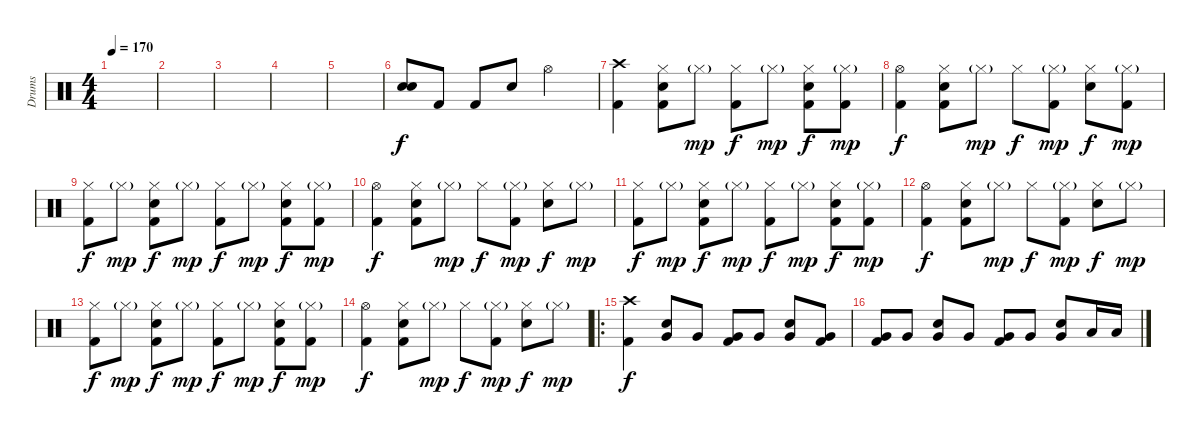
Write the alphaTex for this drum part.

\track ("Drums" "Drums") {instrument percussion}
\staff {score}
\articulation defaults
\ts (4 4)
\tempo 170
\clef neutral
\ks c
|
|
|
|
|
("Snare (hit) 2" "Snare (hit) 2").8 "Kick (hit) 2".8 "Kick (hit) 2".8 "Snare (hit) 2".8 "Hi-Hat (open)".2 |
("Crash high (hit)" "Kick (hit) 2").4 ("Hi-Hat (closed)" "Snare (hit) 2" "Kick (hit) 2").8 "Hi-Hat (closed)"{g}.8{dy mp} ("Hi-Hat (closed)" "Kick (hit) 2").8{dy f} "Hi-Hat (closed)"{g}.8{dy mp} ("Hi-Hat (closed)" "Snare (hit) 2" "Kick (hit) 2").8{dy f} ("Hi-Hat (closed)"{g} "Kick (hit) 2").8{dy mp} |
("Hi-Hat (open)" "Kick (hit) 2").4{dy f} ("Hi-Hat (closed)" "Snare (hit) 2" "Kick (hit) 2").8 "Hi-Hat (closed)"{g}.8{dy mp} "Hi-Hat (closed)".8{dy f} ("Hi-Hat (closed)"{g} "Kick (hit) 2").8{dy mp} ("Hi-Hat (closed)" "Snare (hit) 2").8{dy f} ("Hi-Hat (closed)"{g} "Kick (hit) 2").8{dy mp} |
("Hi-Hat (closed)" "Kick (hit) 2").8{dy f} "Hi-Hat (closed)"{g}.8{dy mp} ("Hi-Hat (closed)" "Snare (hit) 2" "Kick (hit) 2").8{dy f} "Hi-Hat (closed)"{g}.8{dy mp} ("Hi-Hat (closed)" "Kick (hit) 2").8{dy f} "Hi-Hat (closed)"{g}.8{dy mp} ("Hi-Hat (closed)" "Snare (hit) 2" "Kick (hit) 2").8{dy f} ("Hi-Hat (closed)"{g} "Kick (hit) 2").8{dy mp} |
("Hi-Hat (open)" "Kick (hit) 2").4{dy f} ("Hi-Hat (closed)" "Snare (hit) 2" "Kick (hit) 2").8 "Hi-Hat (closed)"{g}.8{dy mp} "Hi-Hat (closed)".8{dy f} ("Hi-Hat (closed)"{g} "Kick (hit) 2").8{dy mp} ("Hi-Hat (closed)" "Snare (hit) 2").8{dy f} "Hi-Hat (closed)"{g}.8{dy mp} |
("Hi-Hat (closed)" "Kick (hit) 2").8{dy f} "Hi-Hat (closed)"{g}.8{dy mp} ("Hi-Hat (closed)" "Snare (hit) 2" "Kick (hit) 2").8{dy f} "Hi-Hat (closed)"{g}.8{dy mp} ("Hi-Hat (closed)" "Kick (hit) 2").8{dy f} "Hi-Hat (closed)"{g}.8{dy mp} ("Hi-Hat (closed)" "Snare (hit) 2" "Kick (hit) 2").8{dy f} ("Hi-Hat (closed)"{g} "Kick (hit) 2").8{dy mp} |
("Hi-Hat (open)" "Kick (hit) 2").4{dy f} ("Hi-Hat (closed)" "Snare (hit) 2" "Kick (hit) 2").8 "Hi-Hat (closed)"{g}.8{dy mp} "Hi-Hat (closed)".8{dy f} ("Hi-Hat (closed)"{g} "Kick (hit) 2").8{dy mp} ("Hi-Hat (closed)" "Snare (hit) 2").8{dy f} "Hi-Hat (closed)"{g}.8{dy mp} |
("Hi-Hat (closed)" "Kick (hit) 2").8{dy f} "Hi-Hat (closed)"{g}.8{dy mp} ("Hi-Hat (closed)" "Snare (hit) 2" "Kick (hit) 2").8{dy f} "Hi-Hat (closed)"{g}.8{dy mp} ("Hi-Hat (closed)" "Kick (hit) 2").8{dy f} "Hi-Hat (closed)"{g}.8{dy mp} ("Hi-Hat (closed)" "Snare (hit) 2" "Kick (hit) 2").8{dy f} ("Hi-Hat (closed)"{g} "Kick (hit) 2").8{dy mp} |
("Hi-Hat (open)" "Kick (hit) 2").4{dy f} ("Hi-Hat (closed)" "Snare (hit) 2" "Kick (hit) 2").8 "Hi-Hat (closed)"{g}.8{dy mp} "Hi-Hat (closed)".8{dy f} ("Hi-Hat (closed)"{g} "Kick (hit) 2").8{dy mp} ("Hi-Hat (closed)" "Snare (hit) 2").8{dy f} "Hi-Hat (closed)"{g}.8{dy mp} |
\ro
("Crash high (hit)" "Kick (hit) 2").4{dy f} ("Very Low Tom (hit)" "Snare (hit) 2").8 "Very Low Tom (hit)".8 ("Very Low Tom (hit)" "Kick (hit) 2").8 "Very Low Tom (hit)".8 ("Very Low Tom (hit)" "Snare (hit) 2").8 ("Very Low Tom (hit)" "Kick (hit) 2").8 |
("Very Low Tom (hit)" "Kick (hit) 2").8 "Very Low Tom (hit)".8 ("Very Low Tom (hit)" "Snare (hit) 2").8 "Very Low Tom (hit)".8 ("Very Low Tom (hit)" "Kick (hit) 2").8 "Very Low Tom (hit)".8 ("Very Low Tom (hit)" "Snare (hit) 2").8 "Low Tom (hit)".16 "Low Tom (hit)".16
